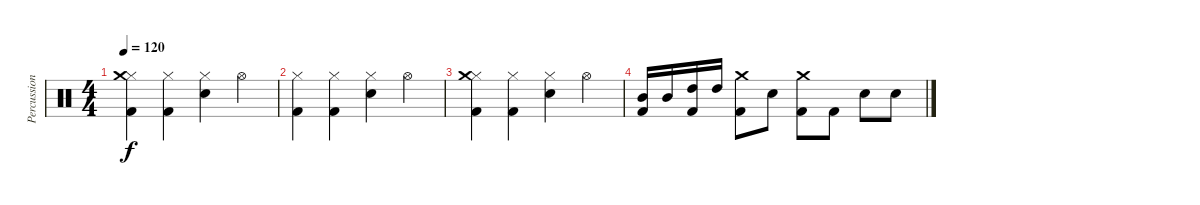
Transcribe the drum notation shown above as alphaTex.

\track ("Percussion" "Percussion") {instrument percussion}
\staff {score}
\articulation defaults
\ts (4 4)
\tempo 120
\clef neutral
\ks c
("Hi-Hat (closed)" "Kick (hit) 2" "Crash medium (hit)").4{dy f} ("Hi-Hat (closed)" "Kick (hit) 2").4 ("Hi-Hat (closed)" "Snare (hit) 2").4 "Hi-Hat (open)".4 |
("Hi-Hat (closed)" "Kick (hit) 2").4 ("Hi-Hat (closed)" "Kick (hit) 2").4 ("Hi-Hat (closed)" "Snare (hit) 2").4 "Hi-Hat (open)".4 |
("Hi-Hat (closed)" "Kick (hit) 2" "Crash medium (hit)").4 ("Hi-Hat (closed)" "Kick (hit) 2").4 ("Hi-Hat (closed)" "Snare (hit) 2").4 "Hi-Hat (open)".4 |
("Mid Tom (hit)" "Kick (hit) 2").16 "Mid Tom (hit)".16 ("High Tom (hit)" "Kick (hit) 2").16 "High Tom (hit)".16 ("Kick (hit) 2" "Crash medium (hit)").8 "Snare (hit) 2".8 ("Kick (hit) 2" "Crash medium (hit)").8 "Kick (hit) 2".8 "Snare (hit) 2".8 "Snare (hit) 2".8
